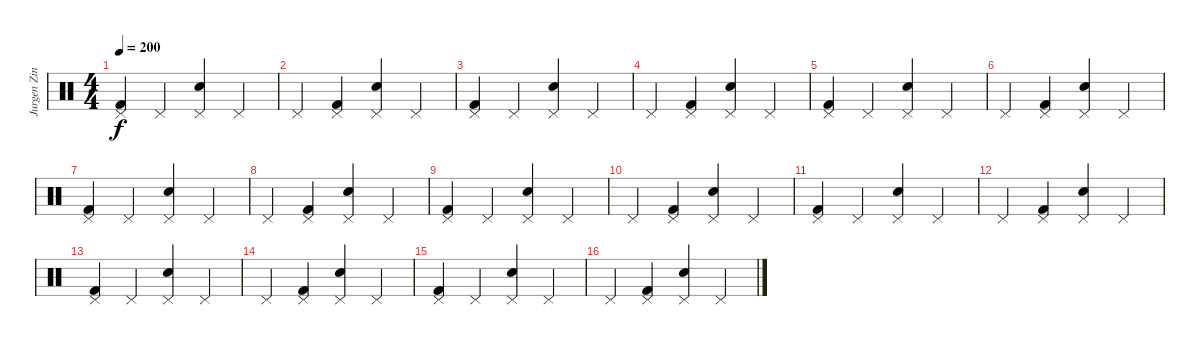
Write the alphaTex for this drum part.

\track ("Jurgen Zink" "Jurgen Zin") {instrument percussion}
\staff {score}
\articulation defaults
\ts (4 4)
\tempo 200
\clef neutral
\ks c
("Pedal Hi-Hat (hit)" "Kick (hit) 2").4{dy f} "Pedal Hi-Hat (hit)".4 ("Pedal Hi-Hat (hit)" "Electric Snare (hit)").4 "Pedal Hi-Hat (hit)".4 |
"Pedal Hi-Hat (hit)".4 ("Pedal Hi-Hat (hit)" "Kick (hit) 2").4 ("Pedal Hi-Hat (hit)" "Electric Snare (hit)").4 "Pedal Hi-Hat (hit)".4 |
("Pedal Hi-Hat (hit)" "Kick (hit) 2").4 "Pedal Hi-Hat (hit)".4 ("Pedal Hi-Hat (hit)" "Electric Snare (hit)").4 "Pedal Hi-Hat (hit)".4 |
"Pedal Hi-Hat (hit)".4 ("Pedal Hi-Hat (hit)" "Kick (hit) 2").4 ("Pedal Hi-Hat (hit)" "Electric Snare (hit)").4 "Pedal Hi-Hat (hit)".4 |
("Pedal Hi-Hat (hit)" "Kick (hit) 2").4 "Pedal Hi-Hat (hit)".4 ("Pedal Hi-Hat (hit)" "Electric Snare (hit)").4 "Pedal Hi-Hat (hit)".4 |
"Pedal Hi-Hat (hit)".4 ("Pedal Hi-Hat (hit)" "Kick (hit) 2").4 ("Pedal Hi-Hat (hit)" "Electric Snare (hit)").4 "Pedal Hi-Hat (hit)".4 |
("Pedal Hi-Hat (hit)" "Kick (hit) 2").4 "Pedal Hi-Hat (hit)".4 ("Pedal Hi-Hat (hit)" "Electric Snare (hit)").4 "Pedal Hi-Hat (hit)".4 |
"Pedal Hi-Hat (hit)".4 ("Pedal Hi-Hat (hit)" "Kick (hit) 2").4 ("Pedal Hi-Hat (hit)" "Electric Snare (hit)").4 "Pedal Hi-Hat (hit)".4 |
("Pedal Hi-Hat (hit)" "Kick (hit) 2").4 "Pedal Hi-Hat (hit)".4 ("Pedal Hi-Hat (hit)" "Electric Snare (hit)").4 "Pedal Hi-Hat (hit)".4 |
"Pedal Hi-Hat (hit)".4 ("Pedal Hi-Hat (hit)" "Kick (hit) 2").4 ("Pedal Hi-Hat (hit)" "Electric Snare (hit)").4 "Pedal Hi-Hat (hit)".4 |
("Pedal Hi-Hat (hit)" "Kick (hit) 2").4 "Pedal Hi-Hat (hit)".4 ("Pedal Hi-Hat (hit)" "Electric Snare (hit)").4 "Pedal Hi-Hat (hit)".4 |
"Pedal Hi-Hat (hit)".4 ("Pedal Hi-Hat (hit)" "Kick (hit) 2").4 ("Pedal Hi-Hat (hit)" "Electric Snare (hit)").4 "Pedal Hi-Hat (hit)".4 |
("Pedal Hi-Hat (hit)" "Kick (hit) 2").4 "Pedal Hi-Hat (hit)".4 ("Pedal Hi-Hat (hit)" "Electric Snare (hit)").4 "Pedal Hi-Hat (hit)".4 |
"Pedal Hi-Hat (hit)".4 ("Pedal Hi-Hat (hit)" "Kick (hit) 2").4 ("Pedal Hi-Hat (hit)" "Electric Snare (hit)").4 "Pedal Hi-Hat (hit)".4 |
("Pedal Hi-Hat (hit)" "Kick (hit) 2").4 "Pedal Hi-Hat (hit)".4 ("Pedal Hi-Hat (hit)" "Electric Snare (hit)").4 "Pedal Hi-Hat (hit)".4 |
"Pedal Hi-Hat (hit)".4 ("Pedal Hi-Hat (hit)" "Kick (hit) 2").4 ("Pedal Hi-Hat (hit)" "Electric Snare (hit)").4 "Pedal Hi-Hat (hit)".4
